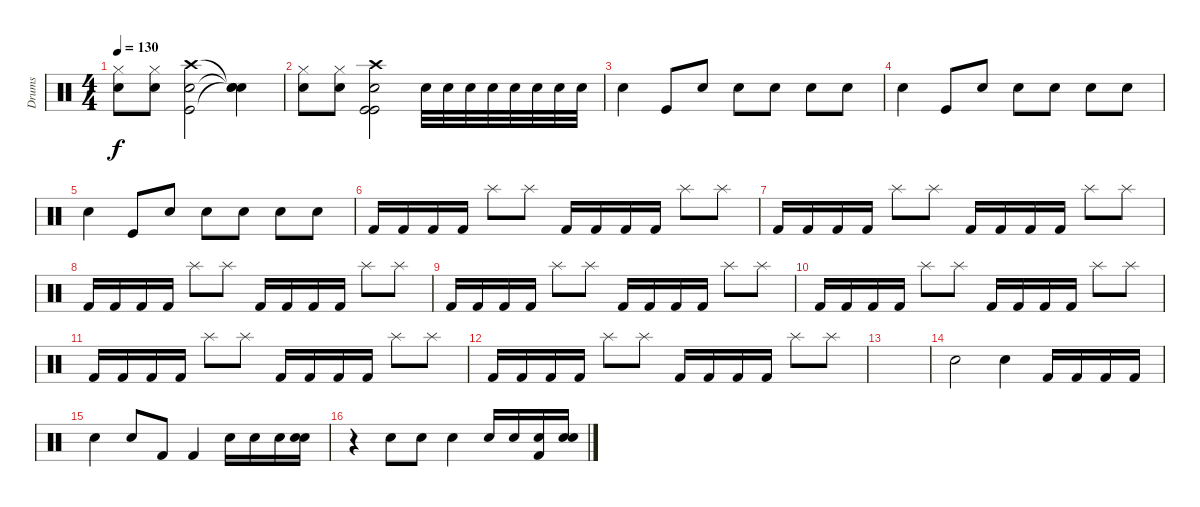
\track ("Drums" "Drums") {instrument percussion}
\staff {score}
\articulation defaults
\ts (4 4)
\tempo 130
\clef neutral
\ks c
("Hi-Hat (closed)" "Electric Snare (hit)").8{dy f} ("Hi-Hat (closed)" "Electric Snare (hit)").8 ("Crash high (hit)" "Kick (hit)" "Snare (hit) 2").2 ("Snare (hit)"{t} "Snare (hit)"{t} "Snare (hit)"{t}).4 |
("Hi-Hat (closed)" "Electric Snare (hit)").8 ("Hi-Hat (closed)" "Electric Snare (hit)").8 ("Kick (hit)" "Crash high (hit)" "Kick (hit)" "Snare (hit) 2").2 "Electric Snare (hit)".32 "Electric Snare (hit)".32 "Electric Snare (hit)".32 "Electric Snare (hit)".32 "Electric Snare (hit)".32 "Electric Snare (hit)".32 "Electric Snare (hit)".32 "Electric Snare (hit)".32 |
"Electric Snare (hit)".4 "Kick (hit)".8 "Snare (hit) 2".8 "Snare (hit) 2".8 "Snare (hit) 2".8 "Snare (hit) 2".8 "Snare (hit) 2".8 |
"Electric Snare (hit)".4 "Kick (hit)".8 "Snare (hit) 2".8 "Snare (hit) 2".8 "Snare (hit) 2".8 "Snare (hit) 2".8 "Snare (hit) 2".8 |
"Electric Snare (hit)".4 "Kick (hit)".8 "Snare (hit) 2".8 "Snare (hit) 2".8 "Snare (hit) 2".8 "Snare (hit) 2".8 "Snare (hit) 2".8 |
"Kick (hit) 2".16 "Kick (hit) 2".16 "Kick (hit) 2".16 "Kick (hit) 2".16 "Splash (hit)".8 "Splash (hit)".8 "Kick (hit) 2".16 "Kick (hit) 2".16 "Kick (hit) 2".16 "Kick (hit) 2".16 "Splash (hit)".8 "Splash (hit)".8 |
"Kick (hit) 2".16 "Kick (hit) 2".16 "Kick (hit) 2".16 "Kick (hit) 2".16 "Splash (hit)".8 "Splash (hit)".8 "Kick (hit) 2".16 "Kick (hit) 2".16 "Kick (hit) 2".16 "Kick (hit) 2".16 "Splash (hit)".8 "Splash (hit)".8 |
"Kick (hit) 2".16 "Kick (hit) 2".16 "Kick (hit) 2".16 "Kick (hit) 2".16 "Splash (hit)".8 "Splash (hit)".8 "Kick (hit) 2".16 "Kick (hit) 2".16 "Kick (hit) 2".16 "Kick (hit) 2".16 "Splash (hit)".8 "Splash (hit)".8 |
"Kick (hit) 2".16 "Kick (hit) 2".16 "Kick (hit) 2".16 "Kick (hit) 2".16 "Splash (hit)".8 "Splash (hit)".8 "Kick (hit) 2".16 "Kick (hit) 2".16 "Kick (hit) 2".16 "Kick (hit) 2".16 "Splash (hit)".8 "Splash (hit)".8 |
"Kick (hit) 2".16 "Kick (hit) 2".16 "Kick (hit) 2".16 "Kick (hit) 2".16 "Splash (hit)".8 "Splash (hit)".8 "Kick (hit) 2".16 "Kick (hit) 2".16 "Kick (hit) 2".16 "Kick (hit) 2".16 "Splash (hit)".8 "Splash (hit)".8 |
"Kick (hit) 2".16 "Kick (hit) 2".16 "Kick (hit) 2".16 "Kick (hit) 2".16 "Splash (hit)".8 "Splash (hit)".8 "Kick (hit) 2".16 "Kick (hit) 2".16 "Kick (hit) 2".16 "Kick (hit) 2".16 "Splash (hit)".8 "Splash (hit)".8 |
"Kick (hit) 2".16 "Kick (hit) 2".16 "Kick (hit) 2".16 "Kick (hit) 2".16 "Splash (hit)".8 "Splash (hit)".8 "Kick (hit) 2".16 "Kick (hit) 2".16 "Kick (hit) 2".16 "Kick (hit) 2".16 "Splash (hit)".8 "Splash (hit)".8 |
|
"Hand Clap (hit)".2 "Electric Snare (hit)".4 "Kick (hit) 2".16 "Kick (hit) 2".16 "Kick (hit) 2".16 "Kick (hit) 2".16 |
"Hand Clap (hit)".4 "Snare (hit) 2".8 "Kick (hit) 2".8 "Kick (hit) 2".4 "Electric Snare (hit)".16 "Electric Snare (hit)".16 "Electric Snare (hit)".16 ("Snare (hit) 2" "Electric Snare (hit)").16 |
r.4 "Hand Clap (hit)".8 "Hand Clap (hit)".8 "Electric Snare (hit)".4 "Electric Snare (hit)".16 "Electric Snare (hit)".16 ("Kick (hit) 2" "Electric Snare (hit)").16 ("Snare (hit) 2" "Electric Snare (hit)").16
